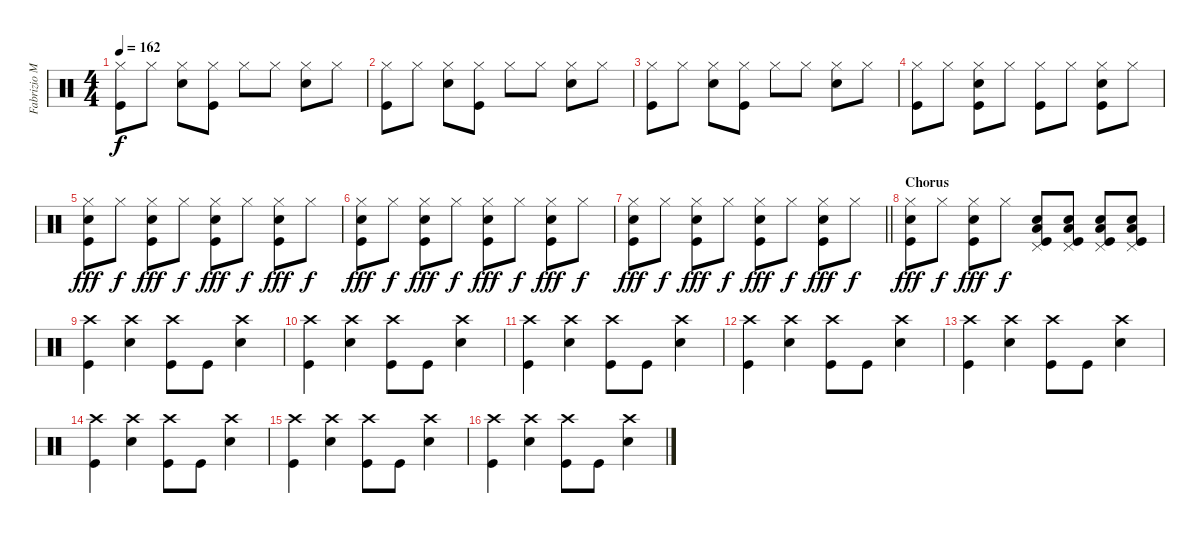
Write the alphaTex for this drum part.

\track ("Fabrizio Moretti" "Fabrizio M") {instrument percussion}
\staff {score}
\articulation defaults
\ts (4 4)
\tempo 162
\clef neutral
\ks c
("Hi-Hat (closed)" "Kick (hit)").8{dy f} "Hi-Hat (closed)".8 ("Hi-Hat (closed)" "Snare (hit) 2").8 ("Hi-Hat (closed)" "Kick (hit)").8 "Hi-Hat (closed)".8 "Hi-Hat (closed)".8 ("Hi-Hat (closed)" "Snare (hit) 2").8 "Hi-Hat (closed)".8 |
("Hi-Hat (closed)" "Kick (hit)").8 "Hi-Hat (closed)".8 ("Hi-Hat (closed)" "Snare (hit) 2").8 ("Hi-Hat (closed)" "Kick (hit)").8 "Hi-Hat (closed)".8 "Hi-Hat (closed)".8 ("Hi-Hat (closed)" "Snare (hit) 2").8 "Hi-Hat (closed)".8 |
("Hi-Hat (closed)" "Kick (hit)").8 "Hi-Hat (closed)".8 ("Hi-Hat (closed)" "Snare (hit) 2").8 ("Hi-Hat (closed)" "Kick (hit)").8 "Hi-Hat (closed)".8 "Hi-Hat (closed)".8 ("Hi-Hat (closed)" "Snare (hit) 2").8 "Hi-Hat (closed)".8 |
("Hi-Hat (closed)" "Kick (hit)").8 "Hi-Hat (closed)".8 ("Hi-Hat (closed)" "Snare (hit) 2" "Kick (hit)").8 "Hi-Hat (closed)".8 ("Hi-Hat (closed)" "Kick (hit)").8 "Hi-Hat (closed)".8 ("Hi-Hat (closed)" "Snare (hit) 2" "Kick (hit)").8 "Hi-Hat (closed)".8 |
("Hi-Hat (closed)" "Snare (hit) 2" "Kick (hit)").8{dy fff} "Hi-Hat (closed)".8{dy f} ("Hi-Hat (closed)" "Snare (hit) 2" "Kick (hit)").8{dy fff} "Hi-Hat (closed)".8{dy f} ("Hi-Hat (closed)" "Snare (hit) 2" "Kick (hit)").8{dy fff} "Hi-Hat (closed)".8{dy f} ("Hi-Hat (closed)" "Snare (hit) 2" "Kick (hit)").8{dy fff} "Hi-Hat (closed)".8{dy f} |
("Hi-Hat (closed)" "Snare (hit) 2" "Kick (hit)").8{dy fff} "Hi-Hat (closed)".8{dy f} ("Hi-Hat (closed)" "Snare (hit) 2" "Kick (hit)").8{dy fff} "Hi-Hat (closed)".8{dy f} ("Hi-Hat (closed)" "Snare (hit) 2" "Kick (hit)").8{dy fff} "Hi-Hat (closed)".8{dy f} ("Hi-Hat (closed)" "Snare (hit) 2" "Kick (hit)").8{dy fff} "Hi-Hat (closed)".8{dy f} |
\barLineRight lightlight
("Hi-Hat (closed)" "Snare (hit) 2" "Kick (hit)").8{dy fff} "Hi-Hat (closed)".8{dy f} ("Hi-Hat (closed)" "Snare (hit) 2" "Kick (hit)").8{dy fff} "Hi-Hat (closed)".8{dy f} ("Hi-Hat (closed)" "Snare (hit) 2" "Kick (hit)").8{dy fff} "Hi-Hat (closed)".8{dy f} ("Hi-Hat (closed)" "Snare (hit) 2" "Kick (hit)").8{dy fff} "Hi-Hat (closed)".8{dy f} |
\section ("" "Chorus")
("Hi-Hat (closed)" "Snare (hit) 2" "Kick (hit)").8{dy fff} "Hi-Hat (closed)".8{dy f} ("Hi-Hat (closed)" "Snare (hit) 2" "Kick (hit)").8{dy fff} "Hi-Hat (closed)".8{dy f} ("Pedal Hi-Hat (hit)" "Snare (hit) 2" "Kick (hit)" "Low Floor Tom (hit)").8 ("Pedal Hi-Hat (hit)" "Snare (hit) 2" "Kick (hit)" "Low Floor Tom (hit)").8 ("Pedal Hi-Hat (hit)" "Snare (hit) 2" "Kick (hit)" "Low Floor Tom (hit)").8 ("Pedal Hi-Hat (hit)" "Snare (hit) 2" "Kick (hit)" "Low Floor Tom (hit)").8 |
("Crash high (hit)" "Kick (hit)").4 ("Crash high (hit)" "Snare (hit) 2").4 ("Crash high (hit)" "Kick (hit)").8 "Kick (hit)".8 ("Crash high (hit)" "Snare (hit) 2").4 |
("Crash high (hit)" "Kick (hit)").4 ("Crash high (hit)" "Snare (hit) 2").4 ("Crash high (hit)" "Kick (hit)").8 "Kick (hit)".8 ("Crash high (hit)" "Snare (hit) 2").4 |
("Crash high (hit)" "Kick (hit)").4 ("Crash high (hit)" "Snare (hit) 2").4 ("Crash high (hit)" "Kick (hit)").8 "Kick (hit)".8 ("Crash high (hit)" "Snare (hit) 2").4 |
("Crash high (hit)" "Kick (hit)").4 ("Crash high (hit)" "Snare (hit) 2").4 ("Crash high (hit)" "Kick (hit)").8 "Kick (hit)".8 ("Crash high (hit)" "Snare (hit) 2").4 |
("Crash high (hit)" "Kick (hit)").4 ("Crash high (hit)" "Snare (hit) 2").4 ("Crash high (hit)" "Kick (hit)").8 "Kick (hit)".8 ("Crash high (hit)" "Snare (hit) 2").4 |
("Crash high (hit)" "Kick (hit)").4 ("Crash high (hit)" "Snare (hit) 2").4 ("Crash high (hit)" "Kick (hit)").8 "Kick (hit)".8 ("Crash high (hit)" "Snare (hit) 2").4 |
("Crash high (hit)" "Kick (hit)").4 ("Crash high (hit)" "Snare (hit) 2").4 ("Crash high (hit)" "Kick (hit)").8 "Kick (hit)".8 ("Crash high (hit)" "Snare (hit) 2").4 |
("Crash high (hit)" "Kick (hit)").4 ("Crash high (hit)" "Snare (hit) 2").4 ("Crash high (hit)" "Kick (hit)").8 "Kick (hit)".8 ("Crash high (hit)" "Snare (hit) 2").4
